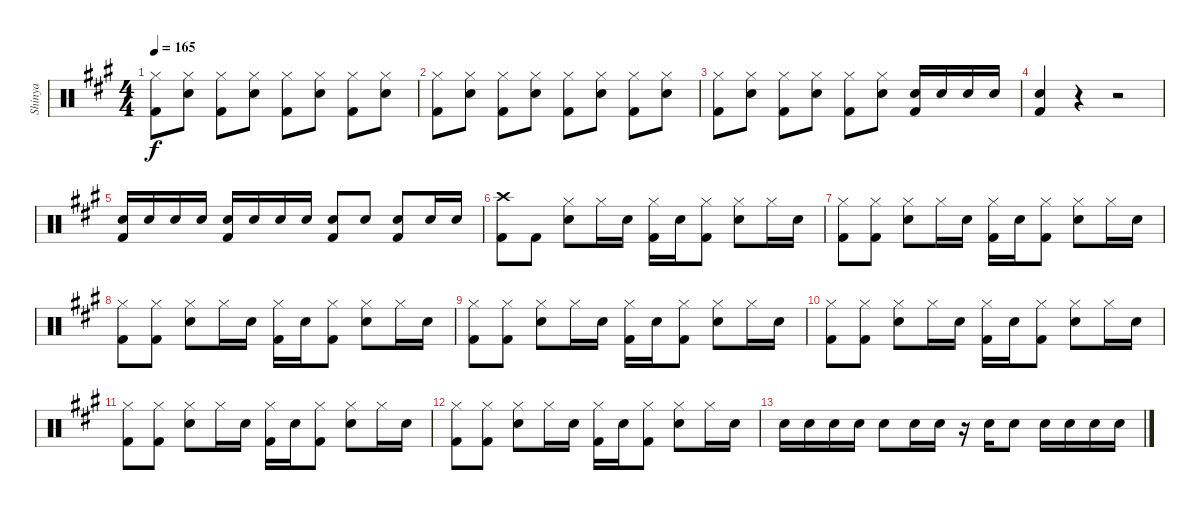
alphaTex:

\track ("Shinya" "Shinya") {instrument percussion}
\staff {score}
\articulation defaults
\ts (4 4)
\tempo 165
\clef neutral
\ks a
("Hi-Hat (closed)" "Kick (hit) 2").8{dy f} ("Hi-Hat (closed)" "Snare (hit) 2").8 ("Hi-Hat (closed)" "Kick (hit) 2").8 ("Hi-Hat (closed)" "Snare (hit) 2").8 ("Hi-Hat (closed)" "Kick (hit) 2").8 ("Hi-Hat (closed)" "Snare (hit) 2").8 ("Hi-Hat (closed)" "Kick (hit) 2").8 ("Hi-Hat (closed)" "Snare (hit) 2").8 |
("Hi-Hat (closed)" "Kick (hit) 2").8 ("Hi-Hat (closed)" "Snare (hit) 2").8 ("Hi-Hat (closed)" "Kick (hit) 2").8 ("Hi-Hat (closed)" "Snare (hit) 2").8 ("Hi-Hat (closed)" "Kick (hit) 2").8 ("Hi-Hat (closed)" "Snare (hit) 2").8 ("Hi-Hat (closed)" "Kick (hit) 2").8 ("Hi-Hat (closed)" "Snare (hit) 2").8 |
("Hi-Hat (closed)" "Kick (hit) 2").8 ("Hi-Hat (closed)" "Snare (hit) 2").8 ("Hi-Hat (closed)" "Kick (hit) 2").8 ("Hi-Hat (closed)" "Snare (hit) 2").8 ("Hi-Hat (closed)" "Kick (hit) 2").8 ("Hi-Hat (closed)" "Snare (hit) 2").8 ("Snare (hit) 2" "Kick (hit) 2").16 "Snare (hit) 2".16 "Snare (hit) 2".16 "Snare (hit) 2".16 |
("Snare (hit) 2" "Kick (hit) 2").4 r.4 r.2 |
("Snare (hit) 2" "Kick (hit) 2").16 "Snare (hit) 2".16 "Snare (hit) 2".16 "Snare (hit) 2".16 ("Snare (hit) 2" "Kick (hit) 2").16 "Snare (hit) 2".16 "Snare (hit) 2".16 "Snare (hit) 2".16 ("Snare (hit) 2" "Kick (hit) 2").8 "Snare (hit) 2".8 ("Snare (hit) 2" "Kick (hit) 2").8 "Snare (hit) 2".16 "Snare (hit) 2".16 |
("Crash high (hit)" "Kick (hit) 2").8 "Kick (hit) 2".8 ("Hi-Hat (closed)" "Snare (hit) 2").8 "Hi-Hat (closed)".16 "Snare (hit) 2".16 ("Hi-Hat (closed)" "Kick (hit) 2").16 "Snare (hit) 2".16 ("Kick (hit) 2" "Hi-Hat (closed)").8 ("Hi-Hat (closed)" "Snare (hit) 2").8 "Hi-Hat (closed)".16 "Snare (hit) 2".16 |
("Hi-Hat (closed)" "Kick (hit) 2").8 ("Hi-Hat (closed)" "Kick (hit) 2").8 ("Hi-Hat (closed)" "Snare (hit) 2").8 "Hi-Hat (closed)".16 "Snare (hit) 2".16 ("Hi-Hat (closed)" "Kick (hit) 2").16 "Snare (hit) 2".16 ("Kick (hit) 2" "Hi-Hat (closed)").8 ("Hi-Hat (closed)" "Snare (hit) 2").8 "Hi-Hat (closed)".16 "Snare (hit) 2".16 |
("Hi-Hat (closed)" "Kick (hit) 2").8 ("Hi-Hat (closed)" "Kick (hit) 2").8 ("Hi-Hat (closed)" "Snare (hit) 2").8 "Hi-Hat (closed)".16 "Snare (hit) 2".16 ("Hi-Hat (closed)" "Kick (hit) 2").16 "Snare (hit) 2".16 ("Kick (hit) 2" "Hi-Hat (closed)").8 ("Hi-Hat (closed)" "Snare (hit) 2").8 "Hi-Hat (closed)".16 "Snare (hit) 2".16 |
("Hi-Hat (closed)" "Kick (hit) 2").8 ("Hi-Hat (closed)" "Kick (hit) 2").8 ("Hi-Hat (closed)" "Snare (hit) 2").8 "Hi-Hat (closed)".16 "Snare (hit) 2".16 ("Hi-Hat (closed)" "Kick (hit) 2").16 "Snare (hit) 2".16 ("Kick (hit) 2" "Hi-Hat (closed)").8 ("Hi-Hat (closed)" "Snare (hit) 2").8 "Hi-Hat (closed)".16 "Snare (hit) 2".16 |
("Hi-Hat (closed)" "Kick (hit) 2").8 ("Hi-Hat (closed)" "Kick (hit) 2").8 ("Hi-Hat (closed)" "Snare (hit) 2").8 "Hi-Hat (closed)".16 "Snare (hit) 2".16 ("Hi-Hat (closed)" "Kick (hit) 2").16 "Snare (hit) 2".16 ("Kick (hit) 2" "Hi-Hat (closed)").8 ("Hi-Hat (closed)" "Snare (hit) 2").8 "Hi-Hat (closed)".16 "Snare (hit) 2".16 |
("Hi-Hat (closed)" "Kick (hit) 2").8 ("Hi-Hat (closed)" "Kick (hit) 2").8 ("Hi-Hat (closed)" "Snare (hit) 2").8 "Hi-Hat (closed)".16 "Snare (hit) 2".16 ("Hi-Hat (closed)" "Kick (hit) 2").16 "Snare (hit) 2".16 ("Kick (hit) 2" "Hi-Hat (closed)").8 ("Hi-Hat (closed)" "Snare (hit) 2").8 "Hi-Hat (closed)".16 "Snare (hit) 2".16 |
("Hi-Hat (closed)" "Kick (hit) 2").8 ("Hi-Hat (closed)" "Kick (hit) 2").8 ("Hi-Hat (closed)" "Snare (hit) 2").8 "Hi-Hat (closed)".16 "Snare (hit) 2".16 ("Hi-Hat (closed)" "Kick (hit) 2").16 "Snare (hit) 2".16 ("Kick (hit) 2" "Hi-Hat (closed)").8 ("Hi-Hat (closed)" "Snare (hit) 2").8 "Hi-Hat (closed)".16 "Snare (hit) 2".16 |
"Snare (hit) 2".16 "Snare (hit) 2".16 "Snare (hit) 2".16 "Snare (hit) 2".16 "Snare (hit) 2".8 "Snare (hit) 2".16 "Snare (hit) 2".16 r.16 "Snare (hit) 2".16 "Snare (hit) 2".8 "Snare (hit) 2".16 "Snare (hit) 2".16 "Snare (hit) 2".16 "Snare (hit) 2".16
